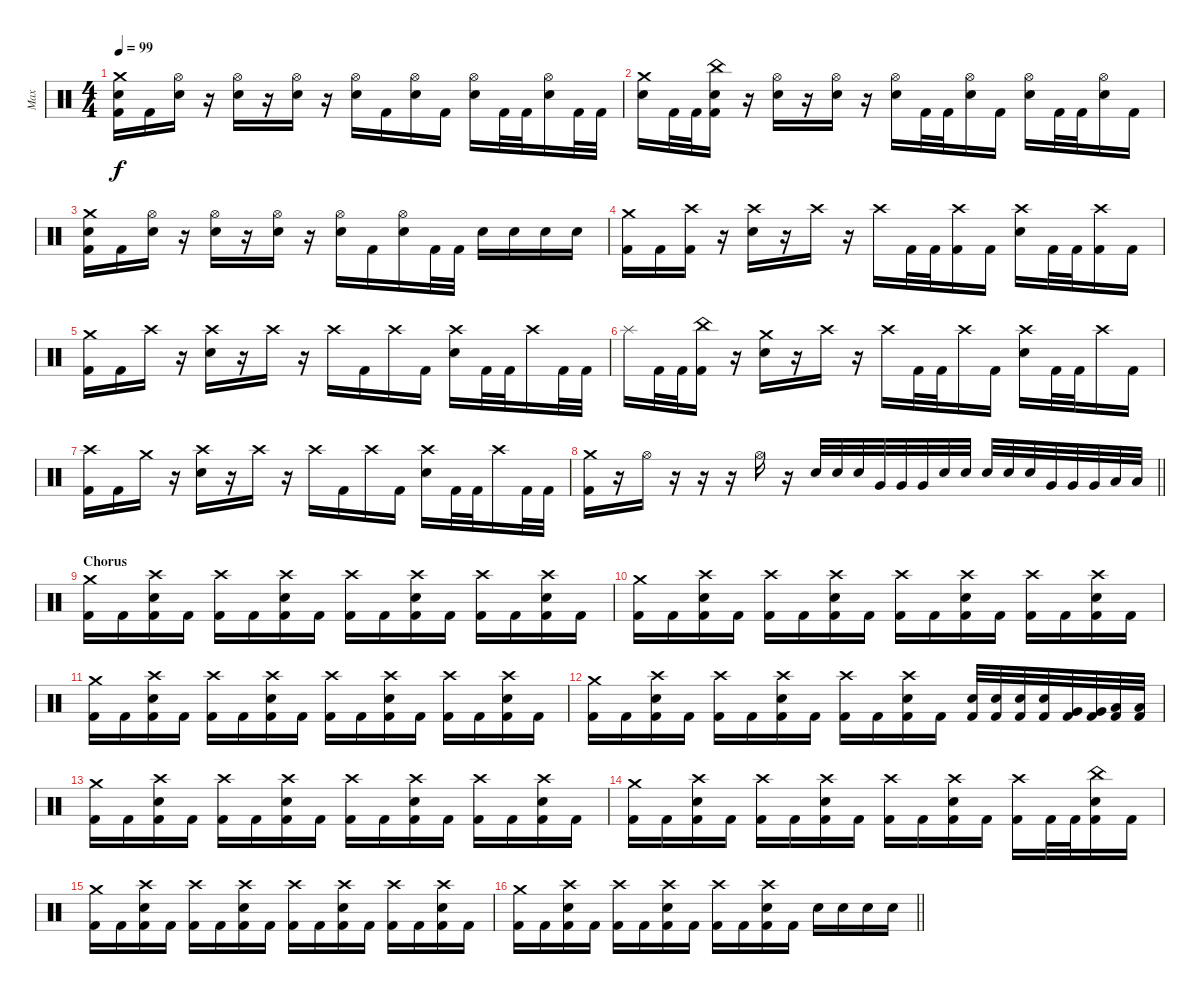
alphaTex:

\track ("Max" "Max") {instrument percussion}
\staff {score}
\articulation defaults
\ts (4 4)
\tempo 99
\clef neutral
\ks c
("Crash medium (hit)" "Electric Snare (hit)" "Kick (hit) 2").16{dy f} "Kick (hit) 2".16 ("Hi-Hat (open)" "Electric Snare (hit)").16 r.16 ("Hi-Hat (open)" "Electric Snare (hit)").16 r.16 ("Hi-Hat (open)" "Electric Snare (hit)").16 r.16 ("Hi-Hat (open)" "Electric Snare (hit)").16 "Kick (hit) 2".16 ("Hi-Hat (open)" "Electric Snare (hit)").16 "Kick (hit) 2".16 ("Hi-Hat (open)" "Electric Snare (hit)").16 "Kick (hit) 2".32 "Kick (hit) 2".32 ("Hi-Hat (open)" "Electric Snare (hit)").16 "Kick (hit) 2".32 "Kick (hit) 2".32 |
("Crash medium (hit)" "Electric Snare (hit)").16 "Kick (hit) 2".32 "Kick (hit) 2".32 ("China (hit)" "Electric Snare (hit)" "Kick (hit) 2").16 r.16 ("Hi-Hat (open)" "Electric Snare (hit)").16 r.16 ("Hi-Hat (open)" "Electric Snare (hit)").16 r.16 ("Hi-Hat (open)" "Electric Snare (hit)").16 "Kick (hit) 2".32 "Kick (hit) 2".32 ("Hi-Hat (open)" "Electric Snare (hit)").16 "Kick (hit) 2".16 ("Hi-Hat (open)" "Electric Snare (hit)").16 "Kick (hit) 2".32 "Kick (hit) 2".32 ("Hi-Hat (open)" "Electric Snare (hit)").16 "Kick (hit) 2".16 |
("Crash medium (hit)" "Electric Snare (hit)" "Kick (hit) 2").16 "Kick (hit) 2".16 ("Hi-Hat (open)" "Electric Snare (hit)").16 r.16 ("Hi-Hat (open)" "Electric Snare (hit)").16 r.16 ("Hi-Hat (open)" "Electric Snare (hit)").16 r.16 ("Hi-Hat (open)" "Electric Snare (hit)").16 "Kick (hit) 2".16 ("Hi-Hat (open)" "Electric Snare (hit)").16 "Kick (hit) 2".32 "Kick (hit) 2".32 "Electric Snare (hit)".16 "Electric Snare (hit)".16 "Electric Snare (hit)".16 "Electric Snare (hit)".16 |
("Crash medium (hit)" "Kick (hit) 2").16 "Kick (hit) 2".16 ("Crash high (hit)" "Kick (hit) 2").16 r.16 ("Crash high (hit)" "Electric Snare (hit)").16 r.16 "Crash high (hit)".16 r.16 "Crash high (hit)".16 "Kick (hit) 2".32 "Kick (hit) 2".32 ("Crash high (hit)" "Kick (hit) 2").16 "Kick (hit) 2".16 ("Crash high (hit)" "Electric Snare (hit)").16 "Kick (hit) 2".32 "Kick (hit) 2".32 ("Crash high (hit)" "Kick (hit) 2").16 "Kick (hit) 2".16 |
("Crash medium (hit)" "Kick (hit) 2").16 "Kick (hit) 2".16 "Crash high (hit)".16 r.16 ("Crash high (hit)" "Electric Snare (hit)").16 r.16 "Crash high (hit)".16 r.16 "Crash high (hit)".16 "Kick (hit) 2".16 "Crash high (hit)".16 "Kick (hit) 2".16 ("Crash high (hit)" "Electric Snare (hit)").16 "Kick (hit) 2".32 "Kick (hit) 2".32 "Crash high (hit)".16 "Kick (hit) 2".32 "Kick (hit) 2".32 |
"Splash (hit)".16 "Kick (hit) 2".32 "Kick (hit) 2".32 ("China (hit)" "Kick (hit) 2").16 r.16 ("Crash medium (hit)" "Electric Snare (hit)").16 r.16 "Crash high (hit)".16 r.16 "Crash high (hit)".16 "Kick (hit) 2".32 "Kick (hit) 2".32 "Crash high (hit)".16 "Kick (hit) 2".16 ("Crash high (hit)" "Electric Snare (hit)").16 "Kick (hit) 2".32 "Kick (hit) 2".32 "Crash high (hit)".16 "Kick (hit) 2".16 |
("Crash high (hit)" "Kick (hit) 2").16 "Kick (hit) 2".16 "Crash medium (hit)".16 r.16 ("Crash high (hit)" "Electric Snare (hit)").16 r.16 "Crash high (hit)".16 r.16 "Crash high (hit)".16 "Kick (hit) 2".16 "Crash high (hit)".16 "Kick (hit) 2".16 ("Crash high (hit)" "Electric Snare (hit)").16 "Kick (hit) 2".32 "Kick (hit) 2".32 "Crash high (hit)".16 "Kick (hit) 2".32 "Kick (hit) 2".32 |
\barLineRight lightlight
("Crash medium (hit)" "Kick (hit) 2").16 r.16 "Hi-Hat (open)".16 r.16 r.16 r.16 "Hi-Hat (open)".16 r.16 "Electric Snare (hit)".32 "Electric Snare (hit)".32 "Electric Snare (hit)".32 "Very Low Tom (hit)".32 "Very Low Tom (hit)".32 "Very Low Tom (hit)".32 "Electric Snare (hit)".32 "Electric Snare (hit)".32 "Electric Snare (hit)".32 "Electric Snare (hit)".32 "Electric Snare (hit)".32 "Very Low Tom (hit)".32 "Very Low Tom (hit)".32 "Very Low Tom (hit)".32 "Low Floor Tom (hit)".32 "Low Floor Tom (hit)".32 |
\section ("" "Chorus")
("Crash medium (hit)" "Kick (hit) 2").16 "Kick (hit) 2".16 ("Crash high (hit)" "Electric Snare (hit)" "Kick (hit) 2").16 "Kick (hit) 2".16 ("Crash high (hit)" "Kick (hit) 2").16 "Kick (hit) 2".16 ("Crash high (hit)" "Electric Snare (hit)" "Kick (hit) 2").16 "Kick (hit) 2".16 ("Crash high (hit)" "Kick (hit) 2").16 "Kick (hit) 2".16 ("Crash high (hit)" "Electric Snare (hit)" "Kick (hit) 2").16 "Kick (hit) 2".16 ("Crash high (hit)" "Kick (hit) 2").16 "Kick (hit) 2".16 ("Crash high (hit)" "Electric Snare (hit)" "Kick (hit) 2").16 "Kick (hit) 2".16 |
("Crash medium (hit)" "Kick (hit) 2").16 "Kick (hit) 2".16 ("Crash high (hit)" "Electric Snare (hit)" "Kick (hit) 2").16 "Kick (hit) 2".16 ("Crash high (hit)" "Kick (hit) 2").16 "Kick (hit) 2".16 ("Crash high (hit)" "Electric Snare (hit)" "Kick (hit) 2").16 "Kick (hit) 2".16 ("Crash high (hit)" "Kick (hit) 2").16 "Kick (hit) 2".16 ("Crash high (hit)" "Electric Snare (hit)" "Kick (hit) 2").16 "Kick (hit) 2".16 ("Crash high (hit)" "Kick (hit) 2").16 "Kick (hit) 2".16 ("Crash high (hit)" "Electric Snare (hit)" "Kick (hit) 2").16 "Kick (hit) 2".16 |
("Crash medium (hit)" "Kick (hit) 2").16 "Kick (hit) 2".16 ("Crash high (hit)" "Electric Snare (hit)" "Kick (hit) 2").16 "Kick (hit) 2".16 ("Crash high (hit)" "Kick (hit) 2").16 "Kick (hit) 2".16 ("Crash high (hit)" "Electric Snare (hit)" "Kick (hit) 2").16 "Kick (hit) 2".16 ("Crash high (hit)" "Kick (hit) 2").16 "Kick (hit) 2".16 ("Crash high (hit)" "Electric Snare (hit)" "Kick (hit) 2").16 "Kick (hit) 2".16 ("Crash high (hit)" "Kick (hit) 2").16 "Kick (hit) 2".16 ("Crash high (hit)" "Electric Snare (hit)" "Kick (hit) 2").16 "Kick (hit) 2".16 |
("Crash medium (hit)" "Kick (hit) 2").16 "Kick (hit) 2".16 ("Crash high (hit)" "Electric Snare (hit)" "Kick (hit) 2").16 "Kick (hit) 2".16 ("Crash high (hit)" "Kick (hit) 2").16 "Kick (hit) 2".16 ("Crash high (hit)" "Electric Snare (hit)" "Kick (hit) 2").16 "Kick (hit) 2".16 ("Crash high (hit)" "Kick (hit) 2").16 "Kick (hit) 2".16 ("Crash high (hit)" "Electric Snare (hit)" "Kick (hit) 2").16 "Kick (hit) 2".16 ("Electric Snare (hit)" "Kick (hit) 2").32 ("Electric Snare (hit)" "Kick (hit) 2").32 ("Electric Snare (hit)" "Kick (hit) 2").32 ("Electric Snare (hit)" "Kick (hit) 2").32 ("Very Low Tom (hit)" "Kick (hit) 2").32 ("Very Low Tom (hit)" "Kick (hit) 2").32 ("Low Floor Tom (hit)" "Kick (hit) 2").32 ("Low Floor Tom (hit)" "Kick (hit) 2").32 |
("Crash medium (hit)" "Kick (hit) 2").16 "Kick (hit) 2".16 ("Crash high (hit)" "Electric Snare (hit)" "Kick (hit) 2").16 "Kick (hit) 2".16 ("Crash high (hit)" "Kick (hit) 2").16 "Kick (hit) 2".16 ("Crash high (hit)" "Electric Snare (hit)" "Kick (hit) 2").16 "Kick (hit) 2".16 ("Crash high (hit)" "Kick (hit) 2").16 "Kick (hit) 2".16 ("Crash high (hit)" "Electric Snare (hit)" "Kick (hit) 2").16 "Kick (hit) 2".16 ("Crash high (hit)" "Kick (hit) 2").16 "Kick (hit) 2".16 ("Crash high (hit)" "Electric Snare (hit)" "Kick (hit) 2").16 "Kick (hit) 2".16 |
("Crash medium (hit)" "Kick (hit) 2").16 "Kick (hit) 2".16 ("Crash high (hit)" "Electric Snare (hit)" "Kick (hit) 2").16 "Kick (hit) 2".16 ("Crash high (hit)" "Kick (hit) 2").16 "Kick (hit) 2".16 ("Crash high (hit)" "Electric Snare (hit)" "Kick (hit) 2").16 "Kick (hit) 2".16 ("Crash high (hit)" "Kick (hit) 2").16 "Kick (hit) 2".16 ("Crash high (hit)" "Electric Snare (hit)" "Kick (hit) 2").16 "Kick (hit) 2".16 ("Crash high (hit)" "Kick (hit) 2").16 "Kick (hit) 2".32 "Kick (hit) 2".32 ("China (hit)" "Electric Snare (hit)" "Kick (hit) 2").16 "Kick (hit) 2".16 |
("Crash medium (hit)" "Kick (hit) 2").16 "Kick (hit) 2".16 ("Crash high (hit)" "Electric Snare (hit)" "Kick (hit) 2").16 "Kick (hit) 2".16 ("Crash high (hit)" "Kick (hit) 2").16 "Kick (hit) 2".16 ("Crash high (hit)" "Electric Snare (hit)" "Kick (hit) 2").16 "Kick (hit) 2".16 ("Crash high (hit)" "Kick (hit) 2").16 "Kick (hit) 2".16 ("Crash high (hit)" "Electric Snare (hit)" "Kick (hit) 2").16 "Kick (hit) 2".16 ("Crash high (hit)" "Kick (hit) 2").16 "Kick (hit) 2".16 ("Crash high (hit)" "Electric Snare (hit)" "Kick (hit) 2").16 "Kick (hit) 2".16 |
\barLineRight lightlight
("Crash medium (hit)" "Kick (hit) 2").16 "Kick (hit) 2".16 ("Crash high (hit)" "Electric Snare (hit)" "Kick (hit) 2").16 "Kick (hit) 2".16 ("Crash high (hit)" "Kick (hit) 2").16 "Kick (hit) 2".16 ("Crash high (hit)" "Electric Snare (hit)" "Kick (hit) 2").16 "Kick (hit) 2".16 ("Crash high (hit)" "Kick (hit) 2").16 "Kick (hit) 2".16 ("Crash high (hit)" "Electric Snare (hit)" "Kick (hit) 2").16 "Kick (hit) 2".16 "Electric Snare (hit)".16 "Electric Snare (hit)".16 "Electric Snare (hit)".16 "Electric Snare (hit)".16
